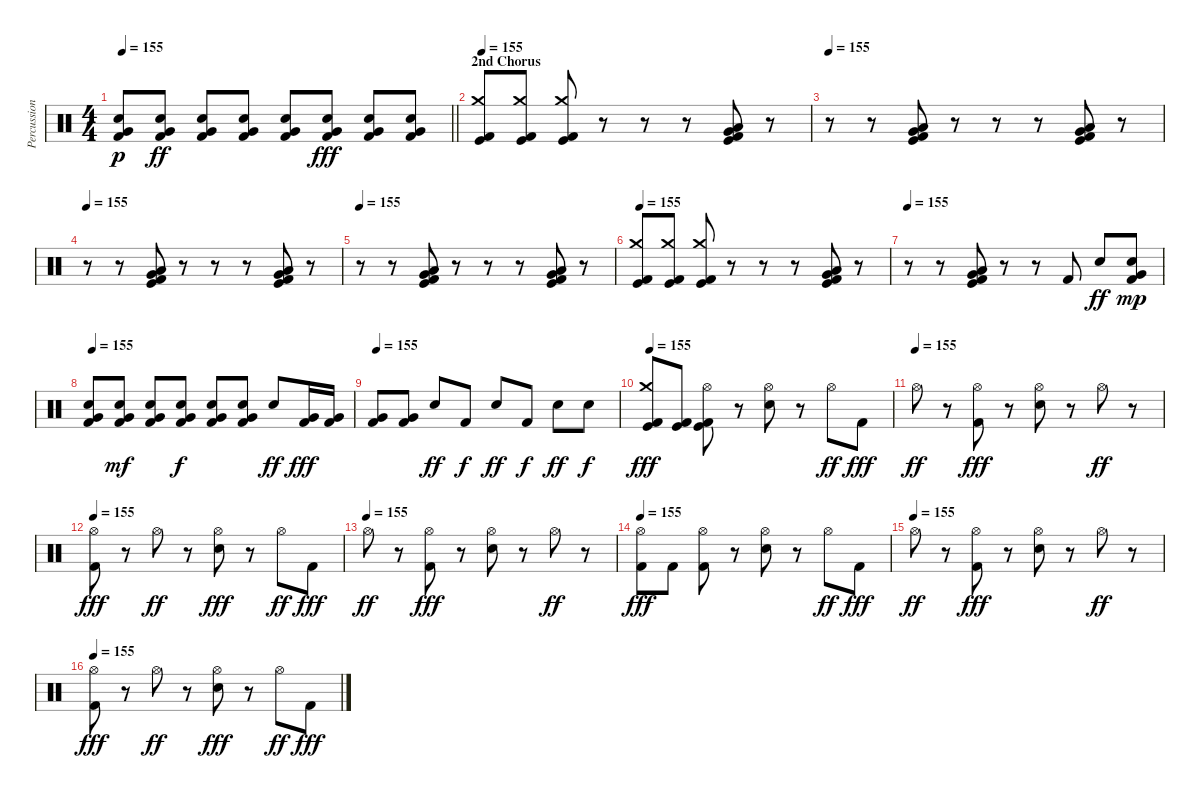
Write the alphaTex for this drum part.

\track ("Percussion" "Percussion") {instrument percussion}
\staff {score}
\articulation defaults
\ts (4 4)
\tempo 155
\clef neutral
\barLineRight lightlight
\ks c
("Electric Snare (hit)" "Very Low Tom (hit)" "Kick (hit) 2").8{dy p} ("Electric Snare (hit)" "Very Low Tom (hit)" "Kick (hit) 2").8{dy ff} ("Electric Snare (hit)" "Very Low Tom (hit)" "Kick (hit) 2").8 ("Electric Snare (hit)" "Very Low Tom (hit)" "Kick (hit) 2").8 ("Electric Snare (hit)" "Very Low Tom (hit)" "Kick (hit) 2").8 ("Electric Snare (hit)" "Very Low Tom (hit)" "Kick (hit) 2").8{dy fff} ("Electric Snare (hit)" "Very Low Tom (hit)" "Kick (hit) 2").8 ("Electric Snare (hit)" "Very Low Tom (hit)" "Kick (hit) 2").8 |
\section ("" "2nd Chorus")
\tempo 155
("Crash medium (hit)" "Kick (hit)" "Kick (hit) 2").8 ("Crash medium (hit)" "Kick (hit)" "Kick (hit) 2").8 ("Crash medium (hit)" "Kick (hit)" "Kick (hit) 2").8 r.8 r.8 r.8 ("Low Floor Tom (hit)" "Very Low Tom (hit)" "Kick (hit)" "Kick (hit) 2").8 r.8 |
\tempo 155
r.8 r.8 ("Low Floor Tom (hit)" "Very Low Tom (hit)" "Kick (hit)" "Kick (hit) 2").8 r.8 r.8 r.8 ("Low Floor Tom (hit)" "Very Low Tom (hit)" "Kick (hit)" "Kick (hit) 2").8 r.8 |
\tempo 155
r.8 r.8 ("Low Floor Tom (hit)" "Very Low Tom (hit)" "Kick (hit)" "Kick (hit) 2").8 r.8 r.8 r.8 ("Low Floor Tom (hit)" "Very Low Tom (hit)" "Kick (hit)" "Kick (hit) 2").8 r.8 |
\tempo 155
r.8 r.8 ("Low Floor Tom (hit)" "Very Low Tom (hit)" "Kick (hit)" "Kick (hit) 2").8 r.8 r.8 r.8 ("Low Floor Tom (hit)" "Very Low Tom (hit)" "Kick (hit)" "Kick (hit) 2").8 r.8 |
\tempo 155
("Crash medium (hit)" "Kick (hit)" "Kick (hit) 2").8 ("Crash medium (hit)" "Kick (hit)" "Kick (hit) 2").8 ("Crash medium (hit)" "Kick (hit)" "Kick (hit) 2").8 r.8 r.8 r.8 ("Low Floor Tom (hit)" "Very Low Tom (hit)" "Kick (hit)" "Kick (hit) 2").8 r.8 |
\tempo 155
r.8 r.8 ("Low Floor Tom (hit)" "Very Low Tom (hit)" "Kick (hit)" "Kick (hit) 2").8 r.8 r.8 "Kick (hit) 2".8 "Electric Snare (hit)".8{dy ff} ("Very Low Tom (hit)" "Electric Snare (hit)" "Kick (hit) 2").8{dy mp} |
\tempo 155
("Very Low Tom (hit)" "Electric Snare (hit)" "Kick (hit) 2").8 ("Very Low Tom (hit)" "Electric Snare (hit)" "Kick (hit) 2").8{dy mf} ("Very Low Tom (hit)" "Electric Snare (hit)" "Kick (hit) 2").8 ("Very Low Tom (hit)" "Electric Snare (hit)" "Kick (hit) 2").8{dy f} ("Very Low Tom (hit)" "Electric Snare (hit)" "Kick (hit) 2").8 ("Very Low Tom (hit)" "Electric Snare (hit)" "Kick (hit) 2").8 "Electric Snare (hit)".8{dy ff} ("Very Low Tom (hit)" "Kick (hit) 2").16{dy fff} ("Very Low Tom (hit)" "Kick (hit) 2").16 |
\tempo 155
("Very Low Tom (hit)" "Kick (hit) 2").8 ("Very Low Tom (hit)" "Kick (hit) 2").8 "Electric Snare (hit)".8{dy ff} "Kick (hit) 2".8{dy f} "Electric Snare (hit)".8{dy ff} "Kick (hit) 2".8{dy f} "Electric Snare (hit)".8{dy ff} "Snare (hit)".8{dy f} |
\tempo 155
("Crash medium (hit)" "Kick (hit)" "Kick (hit) 2").8{dy fff} ("Kick (hit)" "Kick (hit) 2").8 ("Hi-Hat (open)" "Kick (hit)" "Kick (hit) 2").8 r.8 ("Hi-Hat (open)" "Electric Snare (hit)").8 r.8 "Hi-Hat (open)".8{dy ff} "Kick (hit) 2".8{dy fff} |
\tempo (155)
"Hi-Hat (open)".8{dy ff} r.8 ("Hi-Hat (open)" "Kick (hit) 2").8{dy fff} r.8 ("Hi-Hat (open)" "Electric Snare (hit)").8 r.8 "Hi-Hat (open)".8{dy ff} r.8 |
\tempo 155
("Hi-Hat (open)" "Kick (hit) 2").8{dy fff} r.8 "Hi-Hat (open)".8{dy ff} r.8 ("Hi-Hat (open)" "Electric Snare (hit)").8{dy fff} r.8 "Hi-Hat (open)".8{dy ff} "Kick (hit) 2".8{dy fff} |
\tempo (155)
"Hi-Hat (open)".8{dy ff} r.8 ("Hi-Hat (open)" "Kick (hit) 2").8{dy fff} r.8 ("Hi-Hat (open)" "Electric Snare (hit)").8 r.8 "Hi-Hat (open)".8{dy ff} r.8 |
\tempo 155
("Hi-Hat (open)" "Kick (hit) 2").8{dy fff} "Kick (hit) 2".8 ("Hi-Hat (open)" "Kick (hit) 2").8 r.8 ("Hi-Hat (open)" "Electric Snare (hit)").8 r.8 "Hi-Hat (open)".8{dy ff} "Kick (hit) 2".8{dy fff} |
\tempo (155)
"Hi-Hat (open)".8{dy ff} r.8 ("Hi-Hat (open)" "Kick (hit) 2").8{dy fff} r.8 ("Hi-Hat (open)" "Electric Snare (hit)").8 r.8 "Hi-Hat (open)".8{dy ff} r.8 |
\tempo 155
("Hi-Hat (open)" "Kick (hit) 2").8{dy fff} r.8 "Hi-Hat (open)".8{dy ff} r.8 ("Hi-Hat (open)" "Electric Snare (hit)").8{dy fff} r.8 "Hi-Hat (open)".8{dy ff} "Kick (hit) 2".8{dy fff}
